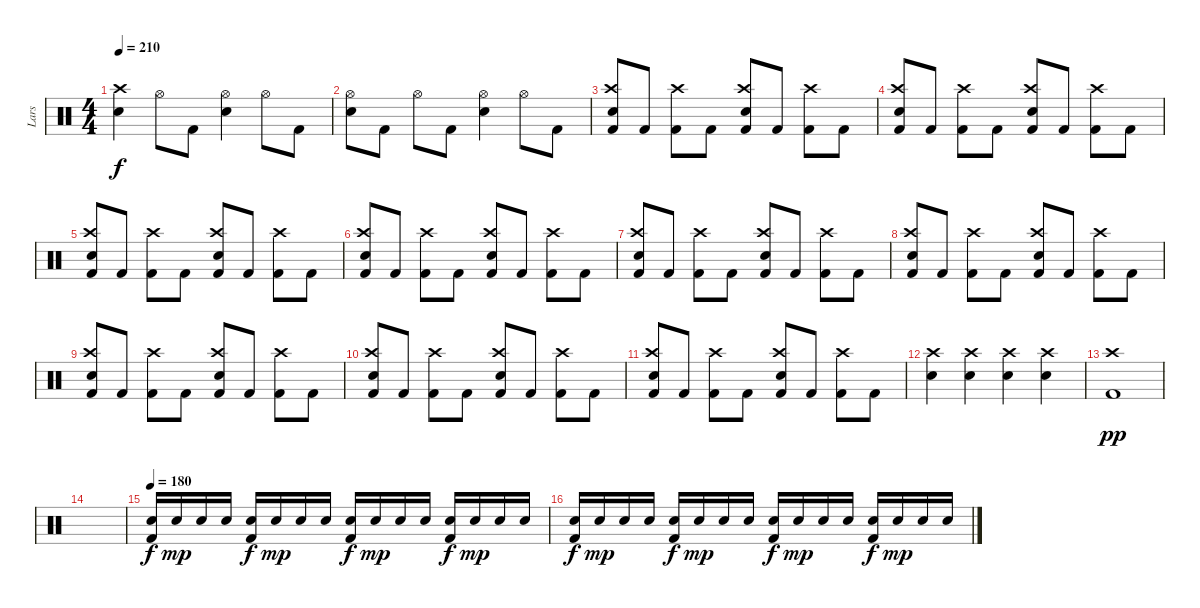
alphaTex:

\track ("Lars" "Lars") {instrument percussion}
\staff {score}
\articulation defaults
\ts (4 4)
\tempo 210
\clef neutral
\ks c
("Snare (hit) 2" "Crash high (hit)").4{dy f} "Hi-Hat (open)".8 "Kick (hit) 2".8 ("Snare (hit) 2" "Hi-Hat (open)").4 "Hi-Hat (open)".8 "Kick (hit) 2".8 |
("Snare (hit) 2" "Hi-Hat (open)").8 "Kick (hit) 2".8 "Hi-Hat (open)".8 "Kick (hit) 2".8 ("Snare (hit) 2" "Hi-Hat (open)").4 "Hi-Hat (open)".8 "Kick (hit) 2".8 |
("Kick (hit) 2" "Snare (hit) 2" "Crash high (hit)").8 "Kick (hit) 2".8 ("Kick (hit) 2" "Crash high (hit)").8 "Kick (hit) 2".8 ("Kick (hit) 2" "Snare (hit) 2" "Crash high (hit)").8 "Kick (hit) 2".8 ("Kick (hit) 2" "Crash high (hit)").8 "Kick (hit) 2".8 |
("Kick (hit) 2" "Snare (hit) 2" "Crash high (hit)").8 "Kick (hit) 2".8 ("Kick (hit) 2" "Crash high (hit)").8 "Kick (hit) 2".8 ("Kick (hit) 2" "Snare (hit) 2" "Crash high (hit)").8 "Kick (hit) 2".8 ("Kick (hit) 2" "Crash high (hit)").8 "Kick (hit) 2".8 |
("Kick (hit) 2" "Snare (hit) 2" "Crash high (hit)").8 "Kick (hit) 2".8 ("Kick (hit) 2" "Crash high (hit)").8 "Kick (hit) 2".8 ("Kick (hit) 2" "Snare (hit) 2" "Crash high (hit)").8 "Kick (hit) 2".8 ("Kick (hit) 2" "Crash high (hit)").8 "Kick (hit) 2".8 |
("Kick (hit) 2" "Snare (hit) 2" "Crash high (hit)").8 "Kick (hit) 2".8 ("Kick (hit) 2" "Crash high (hit)").8 "Kick (hit) 2".8 ("Kick (hit) 2" "Snare (hit) 2" "Crash high (hit)").8 "Kick (hit) 2".8 ("Kick (hit) 2" "Crash high (hit)").8 "Kick (hit) 2".8 |
("Kick (hit) 2" "Snare (hit) 2" "Crash high (hit)").8 "Kick (hit) 2".8 ("Kick (hit) 2" "Crash high (hit)").8 "Kick (hit) 2".8 ("Kick (hit) 2" "Snare (hit) 2" "Crash high (hit)").8 "Kick (hit) 2".8 ("Kick (hit) 2" "Crash high (hit)").8 "Kick (hit) 2".8 |
("Kick (hit) 2" "Snare (hit) 2" "Crash high (hit)").8 "Kick (hit) 2".8 ("Kick (hit) 2" "Crash high (hit)").8 "Kick (hit) 2".8 ("Kick (hit) 2" "Snare (hit) 2" "Crash high (hit)").8 "Kick (hit) 2".8 ("Kick (hit) 2" "Crash high (hit)").8 "Kick (hit) 2".8 |
("Kick (hit) 2" "Snare (hit) 2" "Crash high (hit)").8 "Kick (hit) 2".8 ("Kick (hit) 2" "Crash high (hit)").8 "Kick (hit) 2".8 ("Kick (hit) 2" "Snare (hit) 2" "Crash high (hit)").8 "Kick (hit) 2".8 ("Kick (hit) 2" "Crash high (hit)").8 "Kick (hit) 2".8 |
("Kick (hit) 2" "Snare (hit) 2" "Crash high (hit)").8 "Kick (hit) 2".8 ("Kick (hit) 2" "Crash high (hit)").8 "Kick (hit) 2".8 ("Kick (hit) 2" "Snare (hit) 2" "Crash high (hit)").8 "Kick (hit) 2".8 ("Kick (hit) 2" "Crash high (hit)").8 "Kick (hit) 2".8 |
("Kick (hit) 2" "Snare (hit) 2" "Crash high (hit)").8 "Kick (hit) 2".8 ("Kick (hit) 2" "Crash high (hit)").8 "Kick (hit) 2".8 ("Kick (hit) 2" "Snare (hit) 2" "Crash high (hit)").8 "Kick (hit) 2".8 ("Kick (hit) 2" "Crash high (hit)").8 "Kick (hit) 2".8 |
("Snare (hit) 2" "Crash high (hit)").4 ("Snare (hit) 2" "Crash high (hit)").4 ("Snare (hit) 2" "Crash high (hit)").4 ("Snare (hit) 2" "Crash high (hit)").4 |
("Kick (hit) 2" "Crash high (hit)").1{dy pp} |
|
\tempo 180
("Snare (hit) 2" "Kick (hit) 2").16{dy f} "Snare (hit) 2".16{dy mp} "Snare (hit) 2".16 "Snare (hit) 2".16 ("Snare (hit) 2" "Kick (hit) 2").16{dy f} "Snare (hit) 2".16{dy mp} "Snare (hit) 2".16 "Snare (hit) 2".16 ("Snare (hit) 2" "Kick (hit) 2").16{dy f} "Snare (hit) 2".16{dy mp} "Snare (hit) 2".16 "Snare (hit) 2".16 ("Snare (hit) 2" "Kick (hit) 2").16{dy f} "Snare (hit) 2".16{dy mp} "Snare (hit) 2".16 "Snare (hit) 2".16 |
("Snare (hit) 2" "Kick (hit) 2").16{dy f} "Snare (hit) 2".16{dy mp} "Snare (hit) 2".16 "Snare (hit) 2".16 ("Snare (hit) 2" "Kick (hit) 2").16{dy f} "Snare (hit) 2".16{dy mp} "Snare (hit) 2".16 "Snare (hit) 2".16 ("Snare (hit) 2" "Kick (hit) 2").16{dy f} "Snare (hit) 2".16{dy mp} "Snare (hit) 2".16 "Snare (hit) 2".16 ("Snare (hit) 2" "Kick (hit) 2").16{dy f} "Snare (hit) 2".16{dy mp} "Snare (hit) 2".16 "Snare (hit) 2".16
